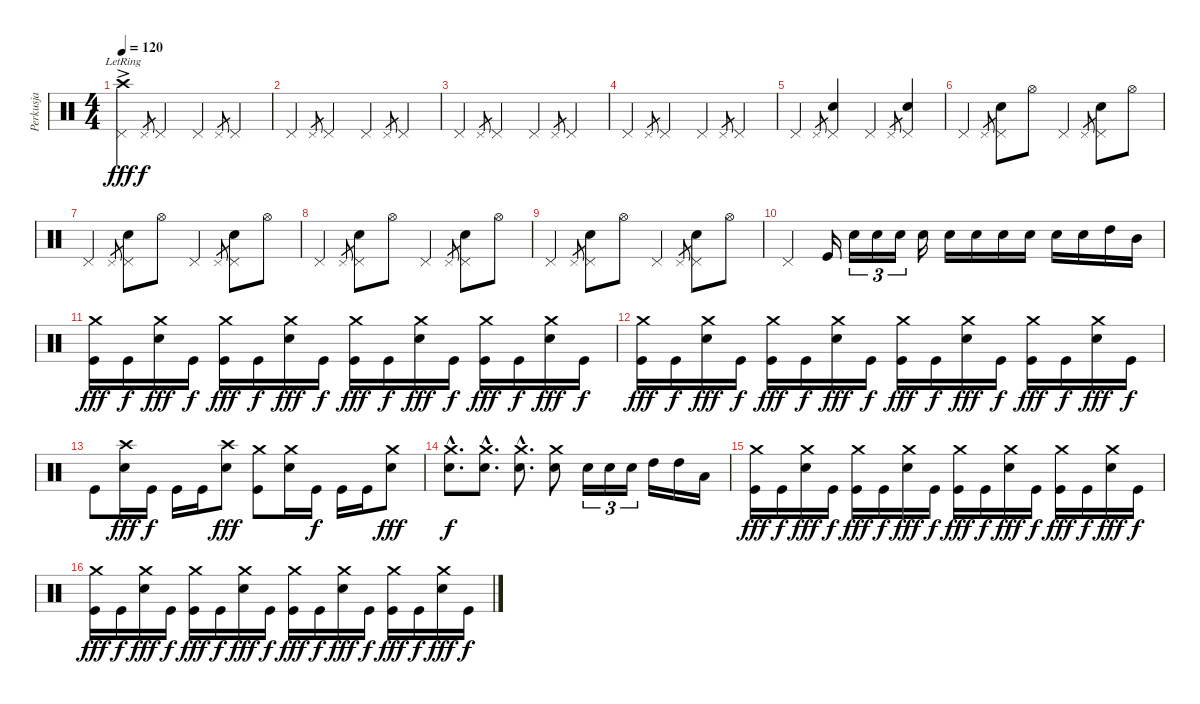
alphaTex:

\track ("Perkusja" "Perkusja") {instrument percussion}
\staff {score}
\articulation defaults
\ts (4 4)
\tempo 120
\clef neutral
\ks c
("Crash high (hit)"{ac lr} "Pedal Hi-Hat (hit)").4{dy fff} "Pedal Hi-Hat (hit)".8{gr dy f} "Pedal Hi-Hat (hit)".4 "Pedal Hi-Hat (hit)".4 "Pedal Hi-Hat (hit)".8{gr} "Pedal Hi-Hat (hit)".4 |
"Pedal Hi-Hat (hit)".4 "Pedal Hi-Hat (hit)".8{gr} "Pedal Hi-Hat (hit)".4 "Pedal Hi-Hat (hit)".4 "Pedal Hi-Hat (hit)".8{gr} "Pedal Hi-Hat (hit)".4 |
"Pedal Hi-Hat (hit)".4 "Pedal Hi-Hat (hit)".8{gr} "Pedal Hi-Hat (hit)".4 "Pedal Hi-Hat (hit)".4 "Pedal Hi-Hat (hit)".8{gr} "Pedal Hi-Hat (hit)".4 |
"Pedal Hi-Hat (hit)".4 "Pedal Hi-Hat (hit)".8{gr} "Pedal Hi-Hat (hit)".4 "Pedal Hi-Hat (hit)".4 "Pedal Hi-Hat (hit)".8{gr} "Pedal Hi-Hat (hit)".4 |
"Pedal Hi-Hat (hit)".4 "Pedal Hi-Hat (hit)".8{gr} ("Hand Clap (hit)" "Pedal Hi-Hat (hit)").4 "Pedal Hi-Hat (hit)".4 "Pedal Hi-Hat (hit)".8{gr} ("Hand Clap (hit)" "Pedal Hi-Hat (hit)").4 |
"Pedal Hi-Hat (hit)".4 "Pedal Hi-Hat (hit)".8{gr} ("Hand Clap (hit)" "Pedal Hi-Hat (hit)").8 "Hi-Hat (open)".8 "Pedal Hi-Hat (hit)".4 "Pedal Hi-Hat (hit)".8{gr} ("Hand Clap (hit)" "Pedal Hi-Hat (hit)").8 "Hi-Hat (open)".8 |
"Pedal Hi-Hat (hit)".4 "Pedal Hi-Hat (hit)".8{gr} ("Hand Clap (hit)" "Pedal Hi-Hat (hit)").8 "Hi-Hat (open)".8 "Pedal Hi-Hat (hit)".4 "Pedal Hi-Hat (hit)".8{gr} ("Hand Clap (hit)" "Pedal Hi-Hat (hit)").8 "Hi-Hat (open)".8 |
"Pedal Hi-Hat (hit)".4 "Pedal Hi-Hat (hit)".8{gr} ("Hand Clap (hit)" "Pedal Hi-Hat (hit)").8 "Hi-Hat (open)".8 "Pedal Hi-Hat (hit)".4 "Pedal Hi-Hat (hit)".8{gr} ("Hand Clap (hit)" "Pedal Hi-Hat (hit)").8 "Hi-Hat (open)".8 |
"Pedal Hi-Hat (hit)".4 "Pedal Hi-Hat (hit)".8{gr} ("Hand Clap (hit)" "Pedal Hi-Hat (hit)").8 "Hi-Hat (open)".8 "Pedal Hi-Hat (hit)".4 "Pedal Hi-Hat (hit)".8{gr} ("Hand Clap (hit)" "Pedal Hi-Hat (hit)").8 "Hi-Hat (open)".8 |
"Pedal Hi-Hat (hit)".4 "Kick (hit)".16 "Electric Snare (hit)".16{tu (3 2)} "Electric Snare (hit)".16{tu (3 2)} "Electric Snare (hit)".16{tu (3 2)} "Electric Snare (hit)".16 "Electric Snare (hit)".16 "Electric Snare (hit)".16 "Electric Snare (hit)".16 "Electric Snare (hit)".16 "Electric Snare (hit)".16 "Electric Snare (hit)".16 "High Tom (hit)".16 "Mid Tom (hit)".16 |
("Crash medium (hit)" "Kick (hit)").16{dy fff} "Kick (hit)".16{dy f} ("Crash medium (hit)" "Electric Snare (hit)").16{dy fff} "Kick (hit)".16{dy f} ("Crash medium (hit)" "Kick (hit)").16{dy fff} "Kick (hit)".16{dy f} ("Crash medium (hit)" "Electric Snare (hit)").16{dy fff} "Kick (hit)".16{dy f} ("Crash medium (hit)" "Kick (hit)").16{dy fff} "Kick (hit)".16{dy f} ("Crash medium (hit)" "Electric Snare (hit)").16{dy fff} "Kick (hit)".16{dy f} ("Crash medium (hit)" "Kick (hit)").16{dy fff} "Kick (hit)".16{dy f} ("Crash medium (hit)" "Electric Snare (hit)").16{dy fff} "Kick (hit)".16{dy f} |
("Crash medium (hit)" "Kick (hit)").16{dy fff} "Kick (hit)".16{dy f} ("Crash medium (hit)" "Electric Snare (hit)").16{dy fff} "Kick (hit)".16{dy f} ("Crash medium (hit)" "Kick (hit)").16{dy fff} "Kick (hit)".16{dy f} ("Crash medium (hit)" "Electric Snare (hit)").16{dy fff} "Kick (hit)".16{dy f} ("Crash medium (hit)" "Kick (hit)").16{dy fff} "Kick (hit)".16{dy f} ("Crash medium (hit)" "Electric Snare (hit)").16{dy fff} "Kick (hit)".16{dy f} ("Crash medium (hit)" "Kick (hit)").16{dy fff} "Kick (hit)".16{dy f} ("Crash medium (hit)" "Electric Snare (hit)").16{dy fff} "Kick (hit)".16{dy f} |
"Kick (hit)".8 ("Crash high (hit)" "Electric Snare (hit)").16{dy fff} "Kick (hit)".16{dy f} "Kick (hit)".16 "Kick (hit)".16 ("Crash high (hit)" "Electric Snare (hit)").8{dy fff} ("Crash medium (hit)" "Kick (hit)").8 ("Crash medium (hit)" "Electric Snare (hit)").16 "Kick (hit)".16{dy f} "Kick (hit)".16 "Kick (hit)".16 ("Crash medium (hit)" "Electric Snare (hit)").8{dy fff} |
("Crash medium (hit)"{hac} "Electric Snare (hit)"{hac}).8{d dy f} ("Crash medium (hit)"{hac} "Electric Snare (hit)"{hac}).8{d} ("Crash medium (hit)"{hac} "Electric Snare (hit)"{hac}).8{d} ("Crash medium (hit)" "Electric Snare (hit)").8 "Electric Snare (hit)".16{tu (3 2)} "Electric Snare (hit)".16{tu (3 2)} "Electric Snare (hit)".16{tu (3 2)} "High Tom (hit)".16 "High Tom (hit)".16 "Low Tom (hit)".16 |
("Crash medium (hit)" "Kick (hit)").16{dy fff} "Kick (hit)".16{dy f} ("Crash medium (hit)" "Electric Snare (hit)").16{dy fff} "Kick (hit)".16{dy f} ("Crash medium (hit)" "Kick (hit)").16{dy fff} "Kick (hit)".16{dy f} ("Crash medium (hit)" "Electric Snare (hit)").16{dy fff} "Kick (hit)".16{dy f} ("Crash medium (hit)" "Kick (hit)").16{dy fff} "Kick (hit)".16{dy f} ("Crash medium (hit)" "Electric Snare (hit)").16{dy fff} "Kick (hit)".16{dy f} ("Crash medium (hit)" "Kick (hit)").16{dy fff} "Kick (hit)".16{dy f} ("Crash medium (hit)" "Electric Snare (hit)").16{dy fff} "Kick (hit)".16{dy f} |
("Crash medium (hit)" "Kick (hit)").16{dy fff} "Kick (hit)".16{dy f} ("Crash medium (hit)" "Electric Snare (hit)").16{dy fff} "Kick (hit)".16{dy f} ("Crash medium (hit)" "Kick (hit)").16{dy fff} "Kick (hit)".16{dy f} ("Crash medium (hit)" "Electric Snare (hit)").16{dy fff} "Kick (hit)".16{dy f} ("Crash medium (hit)" "Kick (hit)").16{dy fff} "Kick (hit)".16{dy f} ("Crash medium (hit)" "Electric Snare (hit)").16{dy fff} "Kick (hit)".16{dy f} ("Crash medium (hit)" "Kick (hit)").16{dy fff} "Kick (hit)".16{dy f} ("Crash medium (hit)" "Electric Snare (hit)").16{dy fff} "Kick (hit)".16{dy f}
